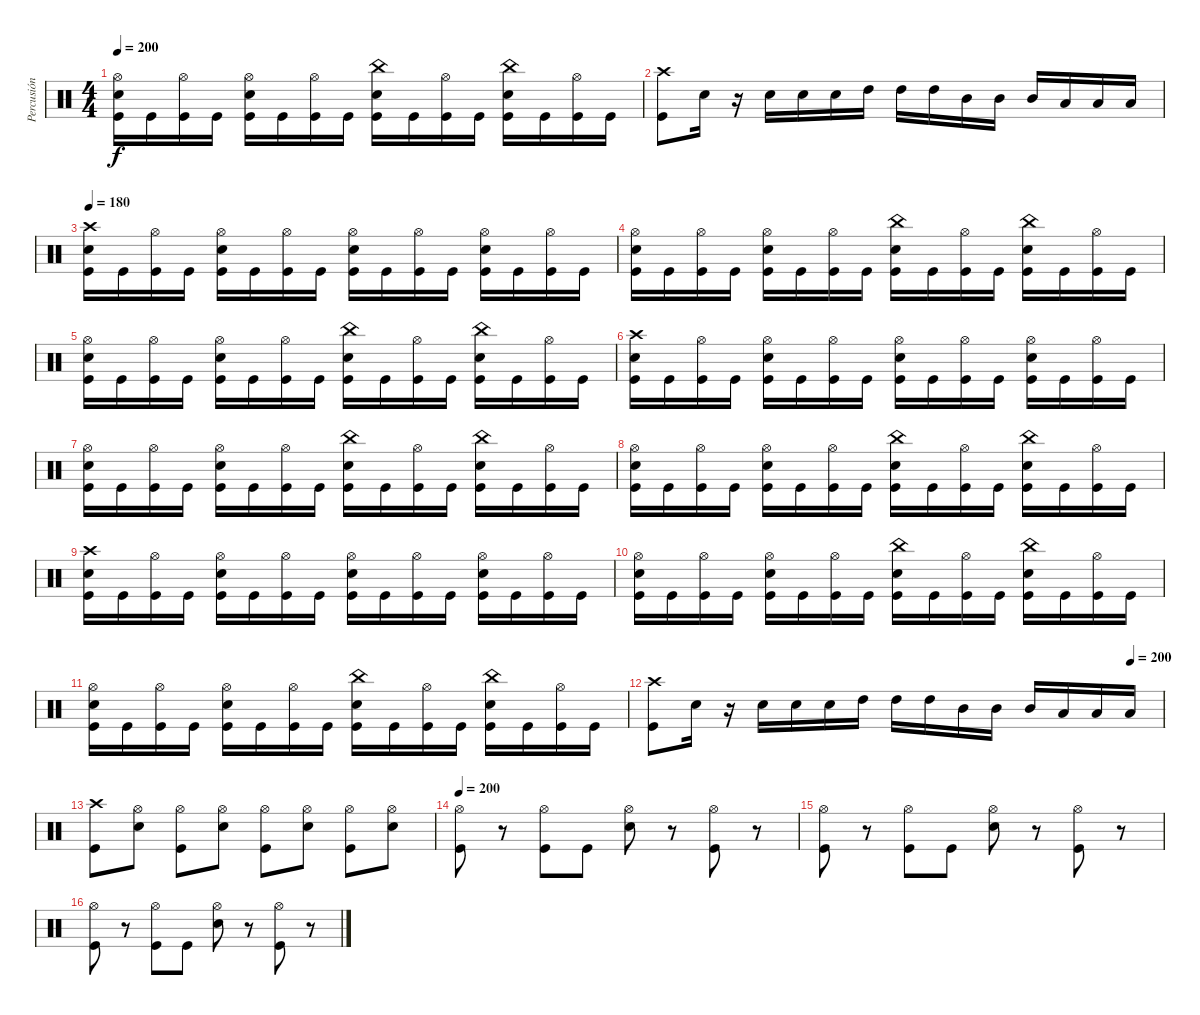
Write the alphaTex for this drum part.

\track ("Percusión" "Percusión") {instrument percussion}
\staff {score}
\articulation defaults
\ts (4 4)
\tempo 200
\clef neutral
\ks c
("Hi-Hat (open)" "Snare (hit) 2" "Kick (hit)").16{dy f} "Kick (hit)".16 ("Hi-Hat (open)" "Kick (hit)").16 "Kick (hit)".16 ("Hi-Hat (open)" "Snare (hit) 2" "Kick (hit)").16 "Kick (hit)".16 ("Hi-Hat (open)" "Kick (hit)").16 "Kick (hit)".16 ("China (hit)" "Snare (hit) 2" "Kick (hit)").16 "Kick (hit)".16 ("Hi-Hat (open)" "Kick (hit)").16 "Kick (hit)".16 ("China (hit)" "Snare (hit) 2" "Kick (hit)").16 "Kick (hit)".16 ("Hi-Hat (open)" "Kick (hit)").16 "Kick (hit)".16 |
("Crash high (hit)" "Kick (hit)").8 "Snare (hit) 2".16 r.16 "Snare (hit) 2".16 "Snare (hit) 2".16 "Snare (hit) 2".16 "High Tom (hit)".16 "High Tom (hit)".16 "High Tom (hit)".16 "Mid Tom (hit)".16 "Mid Tom (hit)".16 "Mid Tom (hit)".16 "Low Tom (hit)".16 "Low Tom (hit)".16 "Low Tom (hit)".16 |
\tempo 180
("Crash high (hit)" "Snare (hit) 2" "Kick (hit)").16 "Kick (hit)".16 ("Hi-Hat (open)" "Kick (hit)").16 "Kick (hit)".16 ("Hi-Hat (open)" "Snare (hit) 2" "Kick (hit)").16 "Kick (hit)".16 ("Hi-Hat (open)" "Kick (hit)").16 "Kick (hit)".16 ("Hi-Hat (open)" "Snare (hit) 2" "Kick (hit)").16 "Kick (hit)".16 ("Hi-Hat (open)" "Kick (hit)").16 "Kick (hit)".16 ("Hi-Hat (open)" "Snare (hit) 2" "Kick (hit)").16 "Kick (hit)".16 ("Hi-Hat (open)" "Kick (hit)").16 "Kick (hit)".16 |
("Hi-Hat (open)" "Snare (hit) 2" "Kick (hit)").16 "Kick (hit)".16 ("Hi-Hat (open)" "Kick (hit)").16 "Kick (hit)".16 ("Hi-Hat (open)" "Snare (hit) 2" "Kick (hit)").16 "Kick (hit)".16 ("Hi-Hat (open)" "Kick (hit)").16 "Kick (hit)".16 ("China (hit)" "Snare (hit) 2" "Kick (hit)").16 "Kick (hit)".16 ("Hi-Hat (open)" "Kick (hit)").16 "Kick (hit)".16 ("China (hit)" "Snare (hit) 2" "Kick (hit)").16 "Kick (hit)".16 ("Hi-Hat (open)" "Kick (hit)").16 "Kick (hit)".16 |
("Hi-Hat (open)" "Snare (hit) 2" "Kick (hit)").16 "Kick (hit)".16 ("Hi-Hat (open)" "Kick (hit)").16 "Kick (hit)".16 ("Hi-Hat (open)" "Snare (hit) 2" "Kick (hit)").16 "Kick (hit)".16 ("Hi-Hat (open)" "Kick (hit)").16 "Kick (hit)".16 ("China (hit)" "Snare (hit) 2" "Kick (hit)").16 "Kick (hit)".16 ("Hi-Hat (open)" "Kick (hit)").16 "Kick (hit)".16 ("China (hit)" "Snare (hit) 2" "Kick (hit)").16 "Kick (hit)".16 ("Hi-Hat (open)" "Kick (hit)").16 "Kick (hit)".16 |
("Crash high (hit)" "Snare (hit) 2" "Kick (hit)").16 "Kick (hit)".16 ("Hi-Hat (open)" "Kick (hit)").16 "Kick (hit)".16 ("Hi-Hat (open)" "Snare (hit) 2" "Kick (hit)").16 "Kick (hit)".16 ("Hi-Hat (open)" "Kick (hit)").16 "Kick (hit)".16 ("Hi-Hat (open)" "Snare (hit) 2" "Kick (hit)").16 "Kick (hit)".16 ("Hi-Hat (open)" "Kick (hit)").16 "Kick (hit)".16 ("Hi-Hat (open)" "Snare (hit) 2" "Kick (hit)").16 "Kick (hit)".16 ("Hi-Hat (open)" "Kick (hit)").16 "Kick (hit)".16 |
("Hi-Hat (open)" "Snare (hit) 2" "Kick (hit)").16 "Kick (hit)".16 ("Hi-Hat (open)" "Kick (hit)").16 "Kick (hit)".16 ("Hi-Hat (open)" "Snare (hit) 2" "Kick (hit)").16 "Kick (hit)".16 ("Hi-Hat (open)" "Kick (hit)").16 "Kick (hit)".16 ("China (hit)" "Snare (hit) 2" "Kick (hit)").16 "Kick (hit)".16 ("Hi-Hat (open)" "Kick (hit)").16 "Kick (hit)".16 ("China (hit)" "Snare (hit) 2" "Kick (hit)").16 "Kick (hit)".16 ("Hi-Hat (open)" "Kick (hit)").16 "Kick (hit)".16 |
("Hi-Hat (open)" "Snare (hit) 2" "Kick (hit)").16 "Kick (hit)".16 ("Hi-Hat (open)" "Kick (hit)").16 "Kick (hit)".16 ("Hi-Hat (open)" "Snare (hit) 2" "Kick (hit)").16 "Kick (hit)".16 ("Hi-Hat (open)" "Kick (hit)").16 "Kick (hit)".16 ("China (hit)" "Snare (hit) 2" "Kick (hit)").16 "Kick (hit)".16 ("Hi-Hat (open)" "Kick (hit)").16 "Kick (hit)".16 ("China (hit)" "Snare (hit) 2" "Kick (hit)").16 "Kick (hit)".16 ("Hi-Hat (open)" "Kick (hit)").16 "Kick (hit)".16 |
("Crash high (hit)" "Snare (hit) 2" "Kick (hit)").16 "Kick (hit)".16 ("Hi-Hat (open)" "Kick (hit)").16 "Kick (hit)".16 ("Hi-Hat (open)" "Snare (hit) 2" "Kick (hit)").16 "Kick (hit)".16 ("Hi-Hat (open)" "Kick (hit)").16 "Kick (hit)".16 ("Hi-Hat (open)" "Snare (hit) 2" "Kick (hit)").16 "Kick (hit)".16 ("Hi-Hat (open)" "Kick (hit)").16 "Kick (hit)".16 ("Hi-Hat (open)" "Snare (hit) 2" "Kick (hit)").16 "Kick (hit)".16 ("Hi-Hat (open)" "Kick (hit)").16 "Kick (hit)".16 |
("Hi-Hat (open)" "Snare (hit) 2" "Kick (hit)").16 "Kick (hit)".16 ("Hi-Hat (open)" "Kick (hit)").16 "Kick (hit)".16 ("Hi-Hat (open)" "Snare (hit) 2" "Kick (hit)").16 "Kick (hit)".16 ("Hi-Hat (open)" "Kick (hit)").16 "Kick (hit)".16 ("China (hit)" "Snare (hit) 2" "Kick (hit)").16 "Kick (hit)".16 ("Hi-Hat (open)" "Kick (hit)").16 "Kick (hit)".16 ("China (hit)" "Snare (hit) 2" "Kick (hit)").16 "Kick (hit)".16 ("Hi-Hat (open)" "Kick (hit)").16 "Kick (hit)".16 |
("Hi-Hat (open)" "Snare (hit) 2" "Kick (hit)").16 "Kick (hit)".16 ("Hi-Hat (open)" "Kick (hit)").16 "Kick (hit)".16 ("Hi-Hat (open)" "Snare (hit) 2" "Kick (hit)").16 "Kick (hit)".16 ("Hi-Hat (open)" "Kick (hit)").16 "Kick (hit)".16 ("China (hit)" "Snare (hit) 2" "Kick (hit)").16 "Kick (hit)".16 ("Hi-Hat (open)" "Kick (hit)").16 "Kick (hit)".16 ("China (hit)" "Snare (hit) 2" "Kick (hit)").16 "Kick (hit)".16 ("Hi-Hat (open)" "Kick (hit)").16 "Kick (hit)".16 |
\tempo (200 0.9375)
("Crash high (hit)" "Kick (hit)").8 "Snare (hit) 2".16 r.16 "Snare (hit) 2".16 "Snare (hit) 2".16 "Snare (hit) 2".16 "High Tom (hit)".16 "High Tom (hit)".16 "High Tom (hit)".16 "Mid Tom (hit)".16 "Mid Tom (hit)".16 "Mid Tom (hit)".16 "Low Tom (hit)".16 "Low Tom (hit)".16 "Low Tom (hit)".16 |
("Crash high (hit)" "Kick (hit)").8 ("Hi-Hat (open)" "Snare (hit) 2").8 ("Hi-Hat (open)" "Kick (hit)").8 ("Hi-Hat (open)" "Snare (hit) 2").8 ("Hi-Hat (open)" "Kick (hit)").8 ("Hi-Hat (open)" "Snare (hit) 2").8 ("Hi-Hat (open)" "Kick (hit)").8 ("Hi-Hat (open)" "Snare (hit) 2").8 |
\tempo 200
("Hi-Hat (open)" "Kick (hit)").8 r.8 ("Hi-Hat (open)" "Kick (hit)").8 "Kick (hit)".8 ("Hi-Hat (open)" "Snare (hit) 2").8 r.8 ("Hi-Hat (open)" "Kick (hit)").8 r.8 |
("Hi-Hat (open)" "Kick (hit)").8 r.8 ("Hi-Hat (open)" "Kick (hit)").8 "Kick (hit)".8 ("Hi-Hat (open)" "Snare (hit) 2").8 r.8 ("Hi-Hat (open)" "Kick (hit)").8 r.8 |
("Hi-Hat (open)" "Kick (hit)").8 r.8 ("Hi-Hat (open)" "Kick (hit)").8 "Kick (hit)".8 ("Hi-Hat (open)" "Snare (hit) 2").8 r.8 ("Hi-Hat (open)" "Kick (hit)").8 r.8
